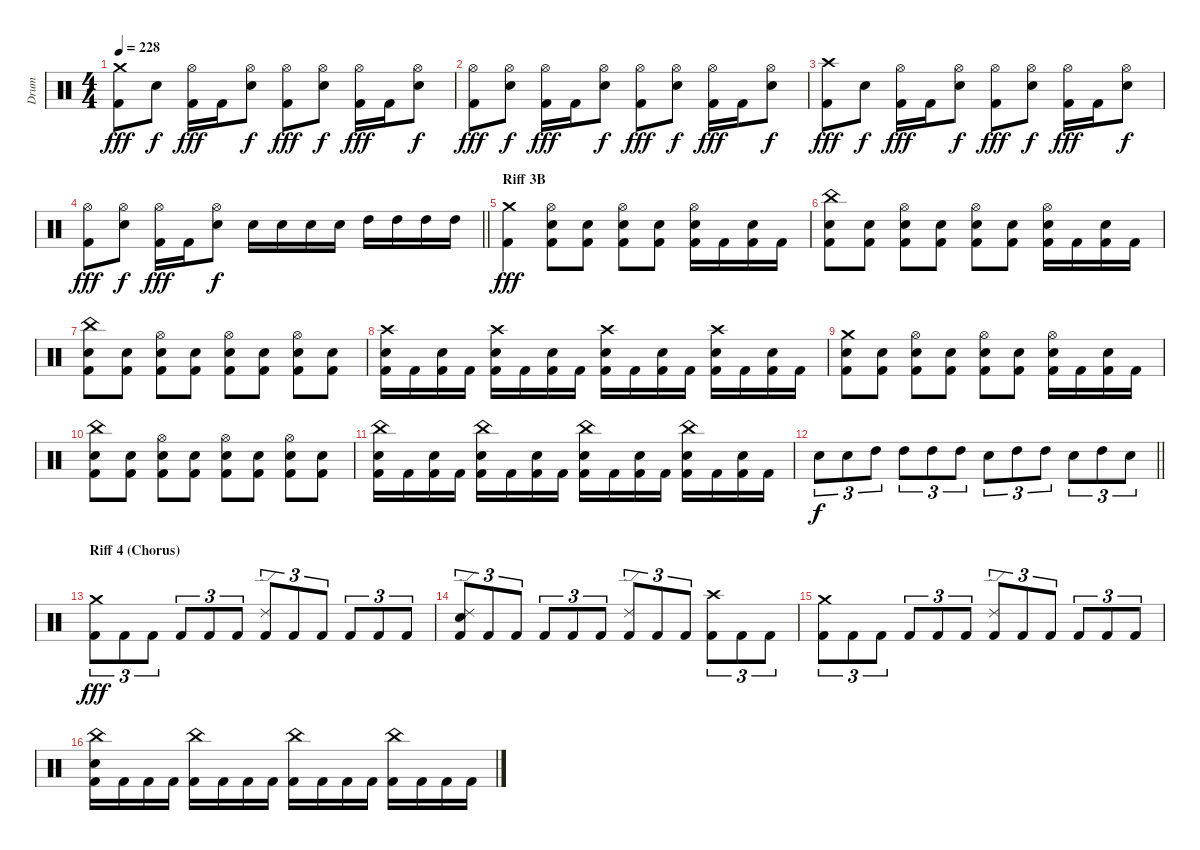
\track ("Drum" "Drum") {instrument percussion}
\staff {score}
\articulation defaults
\ts (4 4)
\tempo 228
\clef neutral
\ks c
("Crash medium (hit)" "Kick (hit) 2").8{dy fff} "Snare (hit) 2".8{dy f} ("Hi-Hat (open)" "Kick (hit) 2").16{dy fff} "Kick (hit) 2".16 ("Hi-Hat (open)" "Snare (hit) 2").8{dy f} ("Hi-Hat (open)" "Kick (hit) 2").8{dy fff} ("Hi-Hat (open)" "Snare (hit) 2").8{dy f} ("Hi-Hat (open)" "Kick (hit) 2").16{dy fff} "Kick (hit) 2".16 ("Hi-Hat (open)" "Snare (hit) 2").8{dy f} |
("Hi-Hat (open)" "Kick (hit) 2").8{dy fff} ("Hi-Hat (open)" "Snare (hit) 2").8{dy f} ("Hi-Hat (open)" "Kick (hit) 2").16{dy fff} "Kick (hit) 2".16 ("Hi-Hat (open)" "Snare (hit) 2").8{dy f} ("Hi-Hat (open)" "Kick (hit) 2").8{dy fff} ("Hi-Hat (open)" "Snare (hit) 2").8{dy f} ("Hi-Hat (open)" "Kick (hit) 2").16{dy fff} "Kick (hit) 2".16 ("Hi-Hat (open)" "Snare (hit) 2").8{dy f} |
("Crash high (hit)" "Kick (hit) 2").8{dy fff} "Snare (hit) 2".8{dy f} ("Hi-Hat (open)" "Kick (hit) 2").16{dy fff} "Kick (hit) 2".16 ("Hi-Hat (open)" "Snare (hit) 2").8{dy f} ("Hi-Hat (open)" "Kick (hit) 2").8{dy fff} ("Hi-Hat (open)" "Snare (hit) 2").8{dy f} ("Hi-Hat (open)" "Kick (hit) 2").16{dy fff} "Kick (hit) 2".16 ("Hi-Hat (open)" "Snare (hit) 2").8{dy f} |
\barLineRight lightlight
("Hi-Hat (open)" "Kick (hit) 2").8{dy fff} ("Hi-Hat (open)" "Snare (hit) 2").8{dy f} ("Hi-Hat (open)" "Kick (hit) 2").16{dy fff} "Kick (hit) 2".16 ("Hi-Hat (open)" "Snare (hit) 2").8{dy f} "Snare (hit) 2".16 "Snare (hit) 2".16 "Snare (hit) 2".16 "Snare (hit) 2".16 "High Tom (hit)".16 "High Tom (hit)".16 "High Tom (hit)".16 "High Tom (hit)".16 |
\section ("" "Riff 3B")
("Crash medium (hit)" "Kick (hit) 2").4{dy fff} ("Hi-Hat (open)" "Snare (hit) 2" "Kick (hit) 2").8 ("Snare (hit) 2" "Kick (hit) 2").8 ("Hi-Hat (open)" "Snare (hit) 2" "Kick (hit) 2").8 ("Snare (hit) 2" "Kick (hit) 2").8 ("Hi-Hat (open)" "Snare (hit) 2" "Kick (hit) 2").16 "Kick (hit) 2".16 ("Snare (hit) 2" "Kick (hit) 2").16 "Kick (hit) 2".16 |
("China (hit)" "Snare (hit) 2" "Kick (hit) 2").8 ("Snare (hit) 2" "Kick (hit) 2").8 ("Hi-Hat (open)" "Snare (hit) 2" "Kick (hit) 2").8 ("Snare (hit) 2" "Kick (hit) 2").8 ("Hi-Hat (open)" "Snare (hit) 2" "Kick (hit) 2").8 ("Snare (hit) 2" "Kick (hit) 2").8 ("Hi-Hat (open)" "Snare (hit) 2" "Kick (hit) 2").16 "Kick (hit) 2".16 ("Snare (hit) 2" "Kick (hit) 2").16 "Kick (hit) 2".16 |
("China (hit)" "Snare (hit) 2" "Kick (hit) 2").8 ("Snare (hit) 2" "Kick (hit) 2").8 ("Hi-Hat (open)" "Snare (hit) 2" "Kick (hit) 2").8 ("Snare (hit) 2" "Kick (hit) 2").8 ("Hi-Hat (open)" "Snare (hit) 2" "Kick (hit) 2").8 ("Snare (hit) 2" "Kick (hit) 2").8 ("Hi-Hat (open)" "Snare (hit) 2" "Kick (hit) 2").8 ("Snare (hit) 2" "Kick (hit) 2").8 |
("Crash high (hit)" "Snare (hit) 2" "Kick (hit) 2").16 "Kick (hit) 2".16 ("Snare (hit) 2" "Kick (hit) 2").16 "Kick (hit) 2".16 ("Crash high (hit)" "Snare (hit) 2" "Kick (hit) 2").16 "Kick (hit) 2".16 ("Snare (hit) 2" "Kick (hit) 2").16 "Kick (hit) 2".16 ("Crash high (hit)" "Snare (hit) 2" "Kick (hit) 2").16 "Kick (hit) 2".16 ("Snare (hit) 2" "Kick (hit) 2").16 "Kick (hit) 2".16 ("Crash high (hit)" "Snare (hit) 2" "Kick (hit) 2").16 "Kick (hit) 2".16 ("Snare (hit) 2" "Kick (hit) 2").16 "Kick (hit) 2".16 |
("Crash medium (hit)" "Snare (hit) 2" "Kick (hit) 2").8 ("Snare (hit) 2" "Kick (hit) 2").8 ("Hi-Hat (open)" "Snare (hit) 2" "Kick (hit) 2").8 ("Snare (hit) 2" "Kick (hit) 2").8 ("Hi-Hat (open)" "Snare (hit) 2" "Kick (hit) 2").8 ("Snare (hit) 2" "Kick (hit) 2").8 ("Hi-Hat (open)" "Snare (hit) 2" "Kick (hit) 2").16 "Kick (hit) 2".16 ("Snare (hit) 2" "Kick (hit) 2").16 "Kick (hit) 2".16 |
("China (hit)" "Snare (hit) 2" "Kick (hit) 2").8 ("Snare (hit) 2" "Kick (hit) 2").8 ("Hi-Hat (open)" "Snare (hit) 2" "Kick (hit) 2").8 ("Snare (hit) 2" "Kick (hit) 2").8 ("Hi-Hat (open)" "Snare (hit) 2" "Kick (hit) 2").8 ("Snare (hit) 2" "Kick (hit) 2").8 ("Hi-Hat (open)" "Snare (hit) 2" "Kick (hit) 2").8 ("Snare (hit) 2" "Kick (hit) 2").8 |
("China (hit)" "Snare (hit) 2" "Kick (hit) 2").16 "Kick (hit) 2".16 ("Snare (hit) 2" "Kick (hit) 2").16 "Kick (hit) 2".16 ("China (hit)" "Snare (hit) 2" "Kick (hit) 2").16 "Kick (hit) 2".16 ("Snare (hit) 2" "Kick (hit) 2").16 "Kick (hit) 2".16 ("China (hit)" "Snare (hit) 2" "Kick (hit) 2").16 "Kick (hit) 2".16 ("Snare (hit) 2" "Kick (hit) 2").16 "Kick (hit) 2".16 ("China (hit)" "Snare (hit) 2" "Kick (hit) 2").16 "Kick (hit) 2".16 ("Snare (hit) 2" "Kick (hit) 2").16 "Kick (hit) 2".16 |
\barLineRight lightlight "Snare (hit) 2".8{tu (3 2) dy f} "Snare (hit) 2".8{tu (3 2)} "High Tom (hit)".8{tu (3 2)} "High Tom (hit)".8{tu (3 2)} "High Tom (hit)".8{tu (3 2)} "High Tom (hit)".8{tu (3 2)} "Snare (hit) 2".8{tu (3 2)} "High Tom (hit)".8{tu (3 2)} "High Tom (hit)".8{tu (3 2)} "Snare (hit) 2".8{tu (3 2)} "High Tom (hit)".8{tu (3 2)} "Snare (hit) 2".8{tu (3 2)}
|
\section ("" "Riff 4 (Chorus)")
("Crash medium (hit)" "Kick (hit) 2").8{tu (3 2) dy fff} "Kick (hit) 2".8{tu (3 2)} "Kick (hit) 2".8{tu (3 2)} "Kick (hit) 2".8{tu (3 2)} "Kick (hit) 2".8{tu (3 2)} "Kick (hit) 2".8{tu (3 2)} ("Ride (edge) 2" "Kick (hit) 2").8{tu (3 2)} "Kick (hit) 2".8{tu (3 2)} "Kick (hit) 2".8{tu (3 2)} "Kick (hit) 2".8{tu (3 2)} "Kick (hit) 2".8{tu (3 2)} "Kick (hit) 2".8{tu (3 2)} |
("Ride (edge) 2" "Snare (hit) 2" "Kick (hit) 2").8{tu (3 2)} "Kick (hit) 2".8{tu (3 2)} "Kick (hit) 2".8{tu (3 2)} "Kick (hit) 2".8{tu (3 2)} "Kick (hit) 2".8{tu (3 2)} "Kick (hit) 2".8{tu (3 2)} ("Ride (edge) 2" "Kick (hit) 2").8{tu (3 2)} "Kick (hit) 2".8{tu (3 2)} "Kick (hit) 2".8{tu (3 2)} ("Crash high (hit)" "Kick (hit) 2").8{tu (3 2)} "Kick (hit) 2".8{tu (3 2)} "Kick (hit) 2".8{tu (3 2)} |
("Crash medium (hit)" "Kick (hit) 2").8{tu (3 2)} "Kick (hit) 2".8{tu (3 2)} "Kick (hit) 2".8{tu (3 2)} "Kick (hit) 2".8{tu (3 2)} "Kick (hit) 2".8{tu (3 2)} "Kick (hit) 2".8{tu (3 2)} ("Ride (edge) 2" "Kick (hit) 2").8{tu (3 2)} "Kick (hit) 2".8{tu (3 2)} "Kick (hit) 2".8{tu (3 2)} "Kick (hit) 2".8{tu (3 2)} "Kick (hit) 2".8{tu (3 2)} "Kick (hit) 2".8{tu (3 2)} |
("China (hit)" "Snare (hit) 2" "Kick (hit) 2").16 "Kick (hit) 2".16 "Kick (hit) 2".16 "Kick (hit) 2".16 ("China (hit)" "Kick (hit) 2").16 "Kick (hit) 2".16 "Kick (hit) 2".16 "Kick (hit) 2".16 ("China (hit)" "Kick (hit) 2").16 "Kick (hit) 2".16 "Kick (hit) 2".16 "Kick (hit) 2".16 ("China (hit)" "Kick (hit) 2").16 "Kick (hit) 2".16 "Kick (hit) 2".16 "Kick (hit) 2".16
